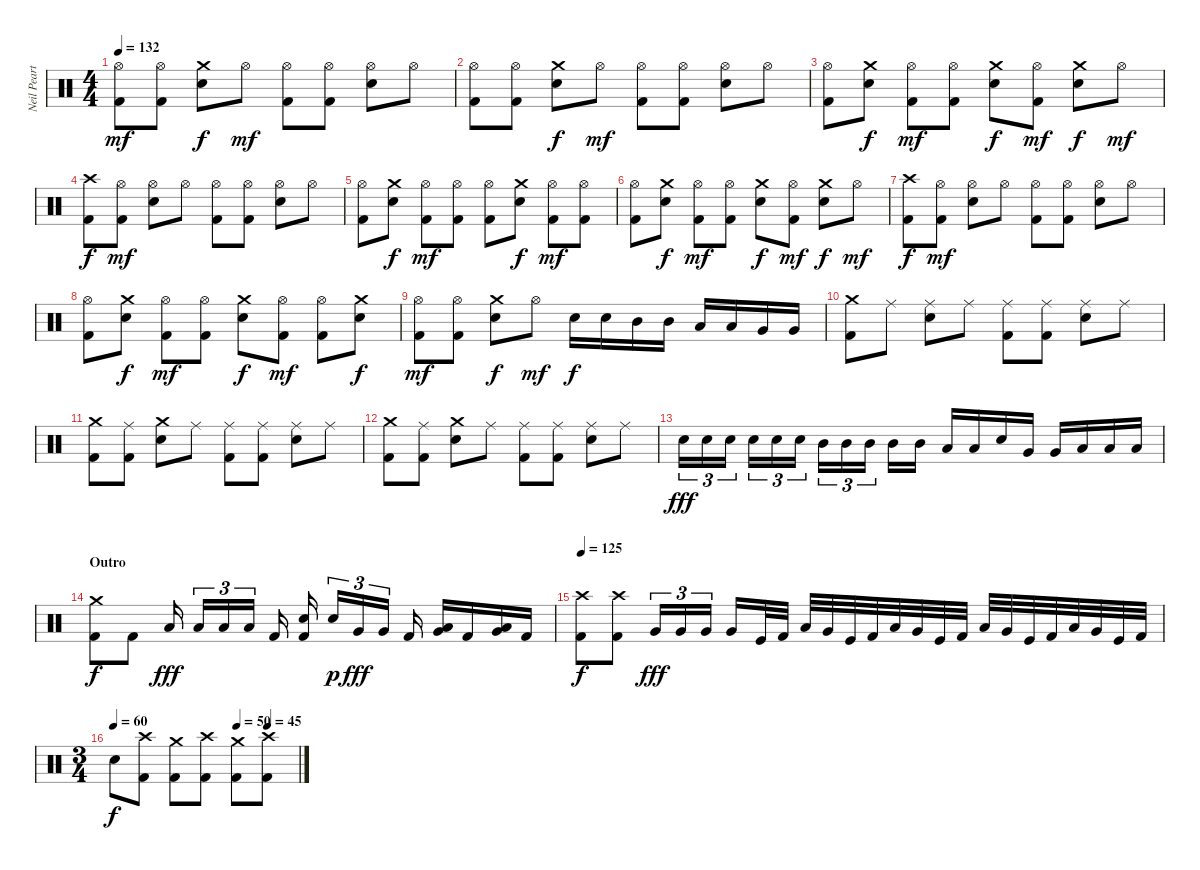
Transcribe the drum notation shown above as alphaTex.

\track ("Neil Peart" "Neil Peart") {instrument percussion}
\staff {score}
\articulation defaults
\ts (4 4)
\tempo 132
\clef neutral
\ks c
("Hi-Hat (open)" "Kick (hit) 2").8{dy mf} ("Hi-Hat (open)" "Kick (hit) 2").8 ("Crash medium (hit)" "Electric Snare (hit)").8{dy f} "Hi-Hat (open)".8{dy mf} ("Hi-Hat (open)" "Kick (hit) 2").8 ("Hi-Hat (open)" "Kick (hit) 2").8 ("Hi-Hat (open)" "Electric Snare (hit)").8 "Hi-Hat (open)".8 |
("Hi-Hat (open)" "Kick (hit) 2").8 ("Hi-Hat (open)" "Kick (hit) 2").8 ("Crash medium (hit)" "Electric Snare (hit)").8{dy f} "Hi-Hat (open)".8{dy mf} ("Hi-Hat (open)" "Kick (hit) 2").8 ("Hi-Hat (open)" "Kick (hit) 2").8 ("Hi-Hat (open)" "Electric Snare (hit)").8 "Hi-Hat (open)".8 |
("Hi-Hat (open)" "Kick (hit) 2").8 ("Crash medium (hit)" "Electric Snare (hit)").8{dy f} ("Hi-Hat (open)" "Kick (hit) 2").8{dy mf} ("Hi-Hat (open)" "Kick (hit) 2").8 ("Crash medium (hit)" "Electric Snare (hit)").8{dy f} ("Hi-Hat (open)" "Kick (hit) 2").8{dy mf} ("Crash medium (hit)" "Electric Snare (hit)").8{dy f} "Hi-Hat (open)".8{dy mf} |
("Crash high (hit)" "Kick (hit) 2").8{dy f} ("Hi-Hat (open)" "Kick (hit) 2").8{dy mf} ("Hi-Hat (open)" "Electric Snare (hit)").8 "Hi-Hat (open)".8 ("Hi-Hat (open)" "Kick (hit) 2").8 ("Hi-Hat (open)" "Kick (hit) 2").8 ("Hi-Hat (open)" "Electric Snare (hit)").8 "Hi-Hat (open)".8 |
("Hi-Hat (open)" "Kick (hit) 2").8 ("Crash medium (hit)" "Electric Snare (hit)").8{dy f} ("Hi-Hat (open)" "Kick (hit) 2").8{dy mf} ("Hi-Hat (open)" "Kick (hit) 2").8 ("Hi-Hat (open)" "Kick (hit) 2").8 ("Crash medium (hit)" "Electric Snare (hit)").8{dy f} ("Hi-Hat (open)" "Kick (hit) 2").8{dy mf} ("Hi-Hat (open)" "Kick (hit) 2").8 |
("Hi-Hat (open)" "Kick (hit) 2").8 ("Crash medium (hit)" "Electric Snare (hit)").8{dy f} ("Hi-Hat (open)" "Kick (hit) 2").8{dy mf} ("Hi-Hat (open)" "Kick (hit) 2").8 ("Crash medium (hit)" "Electric Snare (hit)").8{dy f} ("Hi-Hat (open)" "Kick (hit) 2").8{dy mf} ("Crash medium (hit)" "Electric Snare (hit)").8{dy f} "Hi-Hat (open)".8{dy mf} |
("Crash high (hit)" "Kick (hit) 2").8{dy f} ("Hi-Hat (open)" "Kick (hit) 2").8{dy mf} ("Hi-Hat (open)" "Electric Snare (hit)").8 "Hi-Hat (open)".8 ("Hi-Hat (open)" "Kick (hit) 2").8 ("Hi-Hat (open)" "Kick (hit) 2").8 ("Hi-Hat (open)" "Electric Snare (hit)").8 "Hi-Hat (open)".8 |
("Hi-Hat (open)" "Kick (hit) 2").8 ("Crash medium (hit)" "Electric Snare (hit)").8{dy f} ("Hi-Hat (open)" "Kick (hit) 2").8{dy mf} ("Hi-Hat (open)" "Kick (hit) 2").8 ("Crash medium (hit)" "Electric Snare (hit)").8{dy f} ("Hi-Hat (open)" "Kick (hit) 2").8{dy mf} ("Hi-Hat (open)" "Kick (hit) 2").8 ("Crash medium (hit)" "Electric Snare (hit)").8{dy f} |
("Hi-Hat (open)" "Kick (hit) 2").8{dy mf} ("Hi-Hat (open)" "Kick (hit) 2").8 ("Crash medium (hit)" "Electric Snare (hit)").8{dy f} "Hi-Hat (open)".8{dy mf} "Electric Snare (hit)".16{dy f} "Electric Snare (hit)".16 "Mid Tom (hit)".16 "Mid Tom (hit)".16 "Low Tom (hit)".16 "Low Tom (hit)".16 "Very Low Tom (hit)".16 "Very Low Tom (hit)".16 |
("Crash medium (hit)" "Kick (hit) 2").8 "Ride (middle)".8 ("Ride (middle)" "Electric Snare (hit)").8 "Ride (middle)".8 ("Ride (middle)" "Kick (hit) 2").8 ("Ride (middle)" "Kick (hit) 2").8 ("Ride (middle)" "Electric Snare (hit)").8 "Ride (middle)".8 |
("Crash medium (hit)" "Kick (hit) 2").8 ("Ride (middle)" "Kick (hit) 2").8 ("Crash medium (hit)" "Electric Snare (hit)").8 "Ride (middle)".8 ("Ride (middle)" "Kick (hit) 2").8 ("Ride (middle)" "Kick (hit) 2").8 ("Ride (middle)" "Electric Snare (hit)").8 "Ride (middle)".8 |
("Crash medium (hit)" "Kick (hit) 2").8 ("Ride (middle)" "Kick (hit) 2").8 ("Crash medium (hit)" "Electric Snare (hit)").8 "Ride (middle)".8 ("Ride (middle)" "Kick (hit) 2").8 ("Ride (middle)" "Kick (hit) 2").8 ("Ride (middle)" "Electric Snare (hit)").8 "Ride (middle)".8 |
"Electric Snare (hit)".16{tu (3 2) dy fff} "Electric Snare (hit)".16{tu (3 2)} "Electric Snare (hit)".16{tu (3 2)} "Electric Snare (hit)".16{tu (3 2)} "Electric Snare (hit)".16{tu (3 2)} "Electric Snare (hit)".16{tu (3 2)} "Mid Tom (hit)".16{tu (3 2)} "Mid Tom (hit)".16{tu (3 2)} "Mid Tom (hit)".16{tu (3 2)} "Mid Tom (hit)".16 "Mid Tom (hit)".16 "Low Tom (hit)".16 "Low Tom (hit)".16 "Electric Snare (hit)".16 "Very Low Tom (hit)".16 "Very Low Tom (hit)".16 "Low Floor Tom (hit)".16 "Low Floor Tom (hit)".16 "Low Floor Tom (hit)".16 |
\section ("" "Outro")
("Crash medium (hit)" "Kick (hit) 2").8{dy f} "Kick (hit) 2".8 "Low Tom (hit)".16{dy fff} "Low Tom (hit)".16{tu (3 2)} "Low Tom (hit)".16{tu (3 2)} "Low Tom (hit)".16{tu (3 2)} "Kick (hit) 2".16 ("Electric Snare (hit)" "Kick (hit) 2").16 "Electric Snare (hit)".16{tu (3 2) dy p} "Very Low Tom (hit)".16{tu (3 2) dy fff} "Very Low Tom (hit)".16{tu (3 2)} "Kick (hit) 2".16 ("Very Low Tom (hit)" "Low Floor Tom (hit)").16 "Kick (hit) 2".16 ("Very Low Tom (hit)" "Low Floor Tom (hit)").16 "Kick (hit) 2".16 |
\tempo 125
("Crash high (hit)" "Kick (hit) 2").8{dy f} ("Crash high (hit)" "Kick (hit) 2").8 "Very Low Tom (hit)".16{tu (3 2) dy fff} "Very Low Tom (hit)".16{tu (3 2)} "Very Low Tom (hit)".16{tu (3 2)} "Very Low Tom (hit)".16 "Kick (hit)".32 "Kick (hit) 2".32 "Low Floor Tom (hit)".32 "Very Low Tom (hit)".32 "Kick (hit)".32 "Kick (hit) 2".32 "Low Floor Tom (hit)".32 "Very Low Tom (hit)".32 "Kick (hit)".32 "Kick (hit) 2".32 "Low Floor Tom (hit)".32 "Very Low Tom (hit)".32 "Kick (hit)".32 "Kick (hit) 2".32 "Low Floor Tom (hit)".32 "Very Low Tom (hit)".32 "Kick (hit)".32 "Kick (hit) 2".32 |
\ts (3 4)
\tempo 60
\tempo (50 0.6666666666666666)
\tempo (45 0.8333333333333334)
"Electric Snare (hit)".8{dy f} ("Crash high (hit)" "Kick (hit) 2").8 ("Crash medium (hit)" "Kick (hit) 2").8 ("Crash high (hit)" "Kick (hit) 2").8 ("Crash medium (hit)" "Kick (hit) 2").8 ("Crash high (hit)" "Kick (hit) 2").8
